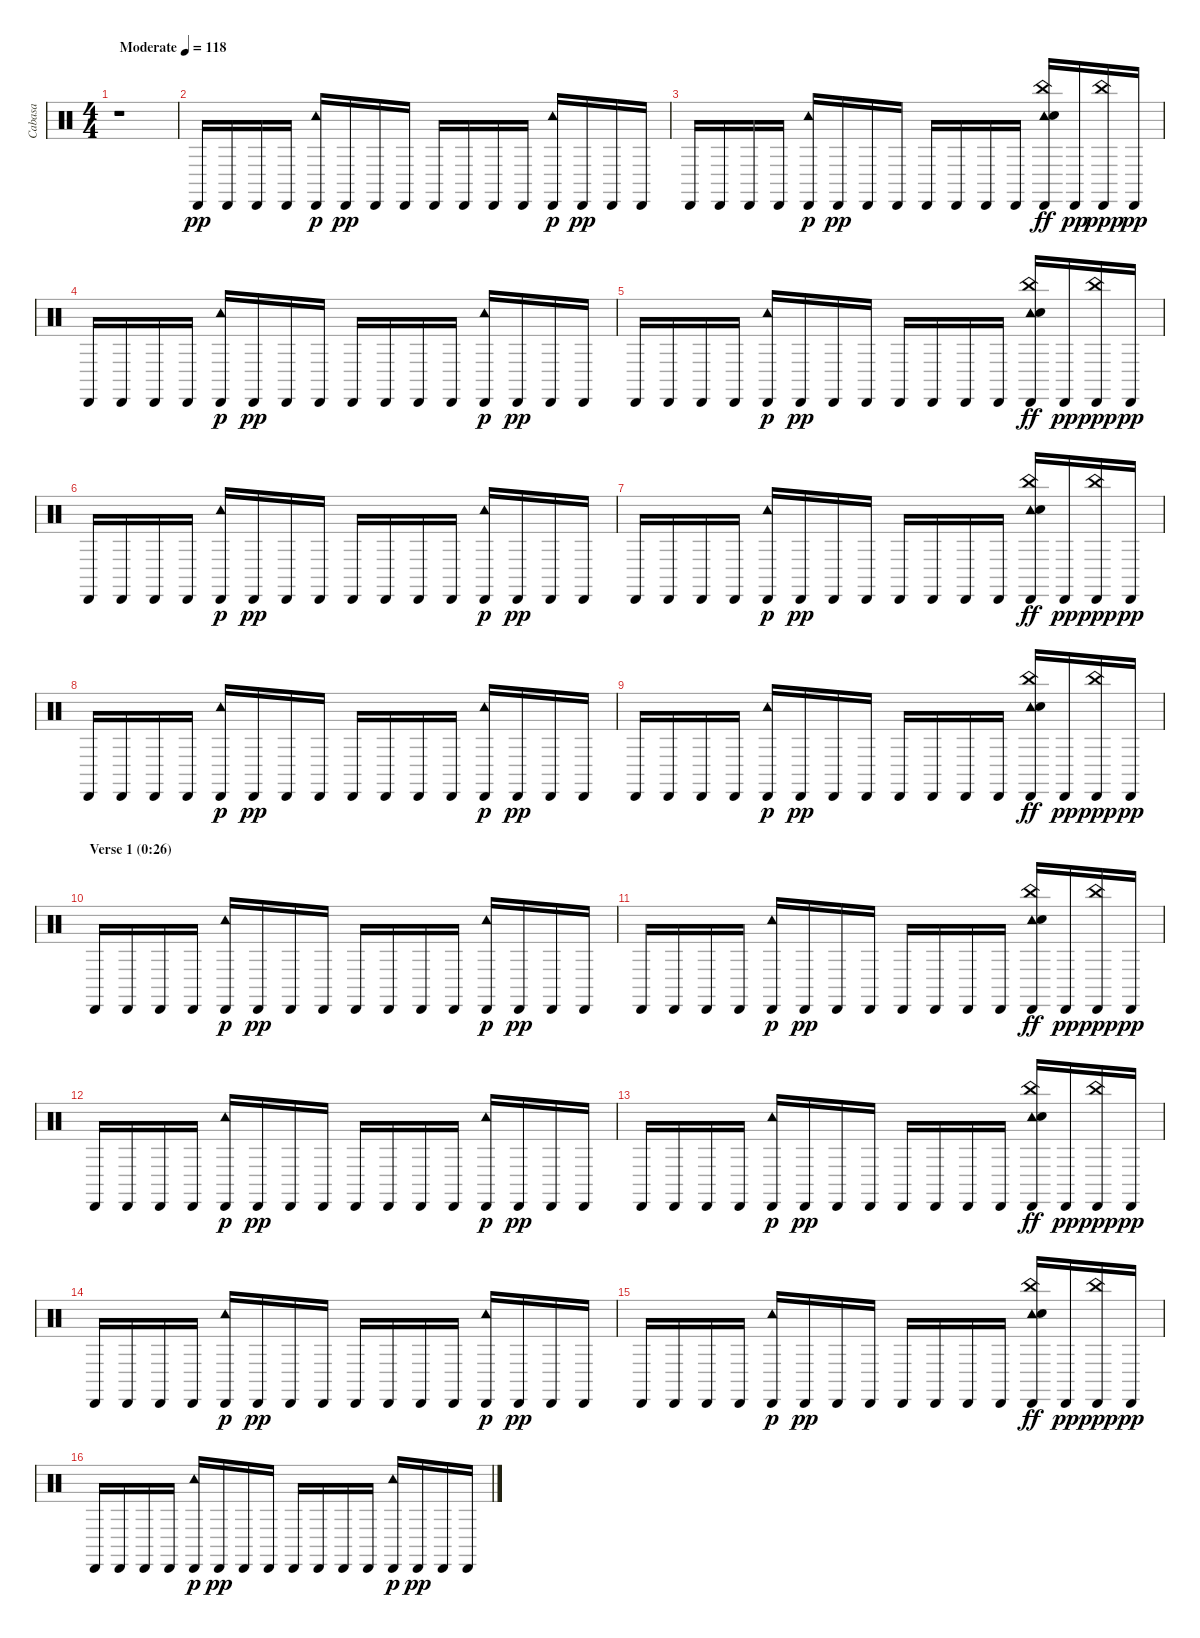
\track ("Cabasa" "Cabasa") {instrument percussion}
\staff {score}
\articulation defaults
\ts (4 4)
\tempo (118 "Moderate")
\clef neutral
\ks c
r.1{dy pp} |
"Cabasa (hit)".16 "Cabasa (hit)".16 "Cabasa (hit)".16 "Cabasa (hit)".16 ("Cabasa (hit)" "Tambourine (hit)").16{dy p} "Cabasa (hit)".16{dy pp} "Cabasa (hit)".16 "Cabasa (hit)".16 "Cabasa (hit)".16 "Cabasa (hit)".16 "Cabasa (hit)".16 "Cabasa (hit)".16 ("Cabasa (hit)" "Tambourine (hit)").16{dy p} "Cabasa (hit)".16{dy pp} "Cabasa (hit)".16 "Cabasa (hit)".16 |
"Cabasa (hit)".16 "Cabasa (hit)".16 "Cabasa (hit)".16 "Cabasa (hit)".16 ("Cabasa (hit)" "Tambourine (hit)").16{dy p} "Cabasa (hit)".16{dy pp} "Cabasa (hit)".16 "Cabasa (hit)".16 "Cabasa (hit)".16 "Cabasa (hit)".16 "Cabasa (hit)".16 "Cabasa (hit)".16 ("Cabasa (hit)" "Tambourine (hit)" "Hand Clap (hit)" "China (hit)").16{dy ff} "Cabasa (hit)".16{dy pp} ("Cabasa (hit)" "China (hit)").16{dy ppp} "Cabasa (hit)".16{dy pp} |
"Cabasa (hit)".16 "Cabasa (hit)".16 "Cabasa (hit)".16 "Cabasa (hit)".16 ("Cabasa (hit)" "Tambourine (hit)").16{dy p} "Cabasa (hit)".16{dy pp} "Cabasa (hit)".16 "Cabasa (hit)".16 "Cabasa (hit)".16 "Cabasa (hit)".16 "Cabasa (hit)".16 "Cabasa (hit)".16 ("Cabasa (hit)" "Tambourine (hit)").16{dy p} "Cabasa (hit)".16{dy pp} "Cabasa (hit)".16 "Cabasa (hit)".16 |
"Cabasa (hit)".16 "Cabasa (hit)".16 "Cabasa (hit)".16 "Cabasa (hit)".16 ("Cabasa (hit)" "Tambourine (hit)").16{dy p} "Cabasa (hit)".16{dy pp} "Cabasa (hit)".16 "Cabasa (hit)".16 "Cabasa (hit)".16 "Cabasa (hit)".16 "Cabasa (hit)".16 "Cabasa (hit)".16 ("Cabasa (hit)" "Tambourine (hit)" "Hand Clap (hit)" "China (hit)").16{dy ff} "Cabasa (hit)".16{dy pp} ("Cabasa (hit)" "China (hit)").16{dy ppp} "Cabasa (hit)".16{dy pp} |
"Cabasa (hit)".16 "Cabasa (hit)".16 "Cabasa (hit)".16 "Cabasa (hit)".16 ("Cabasa (hit)" "Tambourine (hit)").16{dy p} "Cabasa (hit)".16{dy pp} "Cabasa (hit)".16 "Cabasa (hit)".16 "Cabasa (hit)".16 "Cabasa (hit)".16 "Cabasa (hit)".16 "Cabasa (hit)".16 ("Cabasa (hit)" "Tambourine (hit)").16{dy p} "Cabasa (hit)".16{dy pp} "Cabasa (hit)".16 "Cabasa (hit)".16 |
"Cabasa (hit)".16 "Cabasa (hit)".16 "Cabasa (hit)".16 "Cabasa (hit)".16 ("Cabasa (hit)" "Tambourine (hit)").16{dy p} "Cabasa (hit)".16{dy pp} "Cabasa (hit)".16 "Cabasa (hit)".16 "Cabasa (hit)".16 "Cabasa (hit)".16 "Cabasa (hit)".16 "Cabasa (hit)".16 ("Cabasa (hit)" "Tambourine (hit)" "Hand Clap (hit)" "China (hit)").16{dy ff} "Cabasa (hit)".16{dy pp} ("Cabasa (hit)" "China (hit)").16{dy ppp} "Cabasa (hit)".16{dy pp} |
"Cabasa (hit)".16 "Cabasa (hit)".16 "Cabasa (hit)".16 "Cabasa (hit)".16 ("Cabasa (hit)" "Tambourine (hit)").16{dy p} "Cabasa (hit)".16{dy pp} "Cabasa (hit)".16 "Cabasa (hit)".16 "Cabasa (hit)".16 "Cabasa (hit)".16 "Cabasa (hit)".16 "Cabasa (hit)".16 ("Cabasa (hit)" "Tambourine (hit)").16{dy p} "Cabasa (hit)".16{dy pp} "Cabasa (hit)".16 "Cabasa (hit)".16 |
"Cabasa (hit)".16 "Cabasa (hit)".16 "Cabasa (hit)".16 "Cabasa (hit)".16 ("Cabasa (hit)" "Tambourine (hit)").16{dy p} "Cabasa (hit)".16{dy pp} "Cabasa (hit)".16 "Cabasa (hit)".16 "Cabasa (hit)".16 "Cabasa (hit)".16 "Cabasa (hit)".16 "Cabasa (hit)".16 ("Cabasa (hit)" "Tambourine (hit)" "Hand Clap (hit)" "China (hit)").16{dy ff} "Cabasa (hit)".16{dy pp} ("Cabasa (hit)" "China (hit)").16{dy ppp} "Cabasa (hit)".16{dy pp} |
\section ("" "Verse 1 (0:26)")
"Cabasa (hit)".16 "Cabasa (hit)".16 "Cabasa (hit)".16 "Cabasa (hit)".16 ("Cabasa (hit)" "Tambourine (hit)").16{dy p} "Cabasa (hit)".16{dy pp} "Cabasa (hit)".16 "Cabasa (hit)".16 "Cabasa (hit)".16 "Cabasa (hit)".16 "Cabasa (hit)".16 "Cabasa (hit)".16 ("Cabasa (hit)" "Tambourine (hit)").16{dy p} "Cabasa (hit)".16{dy pp} "Cabasa (hit)".16 "Cabasa (hit)".16 |
"Cabasa (hit)".16 "Cabasa (hit)".16 "Cabasa (hit)".16 "Cabasa (hit)".16 ("Cabasa (hit)" "Tambourine (hit)").16{dy p} "Cabasa (hit)".16{dy pp} "Cabasa (hit)".16 "Cabasa (hit)".16 "Cabasa (hit)".16 "Cabasa (hit)".16 "Cabasa (hit)".16 "Cabasa (hit)".16 ("Cabasa (hit)" "Tambourine (hit)" "Hand Clap (hit)" "China (hit)").16{dy ff} "Cabasa (hit)".16{dy pp} ("Cabasa (hit)" "China (hit)").16{dy ppp} "Cabasa (hit)".16{dy pp} |
"Cabasa (hit)".16 "Cabasa (hit)".16 "Cabasa (hit)".16 "Cabasa (hit)".16 ("Cabasa (hit)" "Tambourine (hit)").16{dy p} "Cabasa (hit)".16{dy pp} "Cabasa (hit)".16 "Cabasa (hit)".16 "Cabasa (hit)".16 "Cabasa (hit)".16 "Cabasa (hit)".16 "Cabasa (hit)".16 ("Cabasa (hit)" "Tambourine (hit)").16{dy p} "Cabasa (hit)".16{dy pp} "Cabasa (hit)".16 "Cabasa (hit)".16 |
"Cabasa (hit)".16 "Cabasa (hit)".16 "Cabasa (hit)".16 "Cabasa (hit)".16 ("Cabasa (hit)" "Tambourine (hit)").16{dy p} "Cabasa (hit)".16{dy pp} "Cabasa (hit)".16 "Cabasa (hit)".16 "Cabasa (hit)".16 "Cabasa (hit)".16 "Cabasa (hit)".16 "Cabasa (hit)".16 ("Cabasa (hit)" "Tambourine (hit)" "Hand Clap (hit)" "China (hit)").16{dy ff} "Cabasa (hit)".16{dy pp} ("Cabasa (hit)" "China (hit)").16{dy ppp} "Cabasa (hit)".16{dy pp} |
"Cabasa (hit)".16 "Cabasa (hit)".16 "Cabasa (hit)".16 "Cabasa (hit)".16 ("Cabasa (hit)" "Tambourine (hit)").16{dy p} "Cabasa (hit)".16{dy pp} "Cabasa (hit)".16 "Cabasa (hit)".16 "Cabasa (hit)".16 "Cabasa (hit)".16 "Cabasa (hit)".16 "Cabasa (hit)".16 ("Cabasa (hit)" "Tambourine (hit)").16{dy p} "Cabasa (hit)".16{dy pp} "Cabasa (hit)".16 "Cabasa (hit)".16 |
"Cabasa (hit)".16 "Cabasa (hit)".16 "Cabasa (hit)".16 "Cabasa (hit)".16 ("Cabasa (hit)" "Tambourine (hit)").16{dy p} "Cabasa (hit)".16{dy pp} "Cabasa (hit)".16 "Cabasa (hit)".16 "Cabasa (hit)".16 "Cabasa (hit)".16 "Cabasa (hit)".16 "Cabasa (hit)".16 ("Cabasa (hit)" "Tambourine (hit)" "Hand Clap (hit)" "China (hit)").16{dy ff} "Cabasa (hit)".16{dy pp} ("Cabasa (hit)" "China (hit)").16{dy ppp} "Cabasa (hit)".16{dy pp} |
"Cabasa (hit)".16 "Cabasa (hit)".16 "Cabasa (hit)".16 "Cabasa (hit)".16 ("Cabasa (hit)" "Tambourine (hit)").16{dy p} "Cabasa (hit)".16{dy pp} "Cabasa (hit)".16 "Cabasa (hit)".16 "Cabasa (hit)".16 "Cabasa (hit)".16 "Cabasa (hit)".16 "Cabasa (hit)".16 ("Cabasa (hit)" "Tambourine (hit)").16{dy p} "Cabasa (hit)".16{dy pp} "Cabasa (hit)".16 "Cabasa (hit)".16
